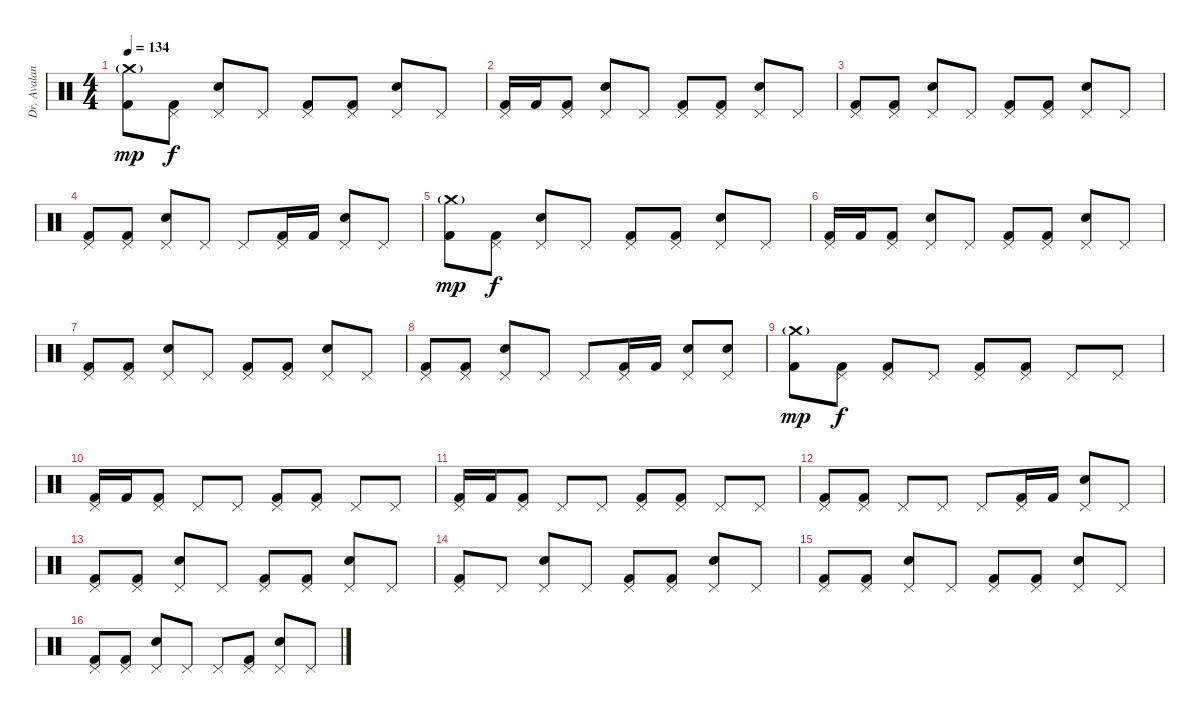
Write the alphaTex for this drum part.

\track ("Dr. Avalanche" "Dr. Avalan") {instrument percussion}
\staff {score}
\articulation defaults
\ts (4 4)
\tempo 134
\clef neutral
\ks c
("Crash medium (hit)"{g} "Kick (hit) 2").8{dy mp} ("Pedal Hi-Hat (hit)" "Kick (hit) 2").8{dy f} ("Pedal Hi-Hat (hit)" "Electric Snare (hit)").8 "Pedal Hi-Hat (hit)".8 ("Pedal Hi-Hat (hit)" "Kick (hit) 2").8 ("Pedal Hi-Hat (hit)" "Kick (hit) 2").8 ("Pedal Hi-Hat (hit)" "Electric Snare (hit)").8 "Pedal Hi-Hat (hit)".8 |
("Pedal Hi-Hat (hit)" "Kick (hit) 2").16 "Kick (hit) 2".16 ("Pedal Hi-Hat (hit)" "Kick (hit) 2").8 ("Pedal Hi-Hat (hit)" "Electric Snare (hit)").8 "Pedal Hi-Hat (hit)".8 ("Pedal Hi-Hat (hit)" "Kick (hit) 2").8 ("Pedal Hi-Hat (hit)" "Kick (hit) 2").8 ("Pedal Hi-Hat (hit)" "Electric Snare (hit)").8 "Pedal Hi-Hat (hit)".8 |
("Pedal Hi-Hat (hit)" "Kick (hit) 2").8 ("Pedal Hi-Hat (hit)" "Kick (hit) 2").8 ("Pedal Hi-Hat (hit)" "Electric Snare (hit)").8 "Pedal Hi-Hat (hit)".8 ("Pedal Hi-Hat (hit)" "Kick (hit) 2").8 ("Pedal Hi-Hat (hit)" "Kick (hit) 2").8 ("Pedal Hi-Hat (hit)" "Electric Snare (hit)").8 "Pedal Hi-Hat (hit)".8 |
("Pedal Hi-Hat (hit)" "Kick (hit) 2").8 ("Pedal Hi-Hat (hit)" "Kick (hit) 2").8 ("Pedal Hi-Hat (hit)" "Electric Snare (hit)").8 "Pedal Hi-Hat (hit)".8 "Pedal Hi-Hat (hit)".8 ("Pedal Hi-Hat (hit)" "Kick (hit) 2").16 "Kick (hit) 2".16 ("Pedal Hi-Hat (hit)" "Electric Snare (hit)").8 "Pedal Hi-Hat (hit)".8 |
("Crash medium (hit)"{g} "Kick (hit) 2").8{dy mp} ("Pedal Hi-Hat (hit)" "Kick (hit) 2").8{dy f} ("Pedal Hi-Hat (hit)" "Electric Snare (hit)").8 "Pedal Hi-Hat (hit)".8 ("Pedal Hi-Hat (hit)" "Kick (hit) 2").8 ("Pedal Hi-Hat (hit)" "Kick (hit) 2").8 ("Pedal Hi-Hat (hit)" "Electric Snare (hit)").8 "Pedal Hi-Hat (hit)".8 |
("Pedal Hi-Hat (hit)" "Kick (hit) 2").16 "Kick (hit) 2".16 ("Pedal Hi-Hat (hit)" "Kick (hit) 2").8 ("Pedal Hi-Hat (hit)" "Electric Snare (hit)").8 "Pedal Hi-Hat (hit)".8 ("Pedal Hi-Hat (hit)" "Kick (hit) 2").8 ("Pedal Hi-Hat (hit)" "Kick (hit) 2").8 ("Pedal Hi-Hat (hit)" "Electric Snare (hit)").8 "Pedal Hi-Hat (hit)".8 |
("Pedal Hi-Hat (hit)" "Kick (hit) 2").8 ("Pedal Hi-Hat (hit)" "Kick (hit) 2").8 ("Pedal Hi-Hat (hit)" "Electric Snare (hit)").8 "Pedal Hi-Hat (hit)".8 ("Pedal Hi-Hat (hit)" "Kick (hit) 2").8 ("Pedal Hi-Hat (hit)" "Kick (hit) 2").8 ("Pedal Hi-Hat (hit)" "Electric Snare (hit)").8 "Pedal Hi-Hat (hit)".8 |
("Pedal Hi-Hat (hit)" "Kick (hit) 2").8 ("Pedal Hi-Hat (hit)" "Kick (hit) 2").8 ("Pedal Hi-Hat (hit)" "Electric Snare (hit)").8 "Pedal Hi-Hat (hit)".8 "Pedal Hi-Hat (hit)".8 ("Pedal Hi-Hat (hit)" "Kick (hit) 2").16 "Kick (hit) 2".16 ("Pedal Hi-Hat (hit)" "Electric Snare (hit)").8 ("Pedal Hi-Hat (hit)" "Electric Snare (hit)").8 |
("Crash medium (hit)"{g} "Kick (hit) 2").8{dy mp} ("Pedal Hi-Hat (hit)" "Kick (hit) 2").8{dy f} ("Pedal Hi-Hat (hit)" "Kick (hit) 2").8 "Pedal Hi-Hat (hit)".8 ("Pedal Hi-Hat (hit)" "Kick (hit) 2").8 ("Pedal Hi-Hat (hit)" "Kick (hit) 2").8 "Pedal Hi-Hat (hit)".8 "Pedal Hi-Hat (hit)".8 |
("Pedal Hi-Hat (hit)" "Kick (hit) 2").16 "Kick (hit) 2".16 ("Pedal Hi-Hat (hit)" "Kick (hit) 2").8 "Pedal Hi-Hat (hit)".8 "Pedal Hi-Hat (hit)".8 ("Pedal Hi-Hat (hit)" "Kick (hit) 2").8 ("Pedal Hi-Hat (hit)" "Kick (hit) 2").8 "Pedal Hi-Hat (hit)".8 "Pedal Hi-Hat (hit)".8 |
("Pedal Hi-Hat (hit)" "Kick (hit) 2").16 "Kick (hit) 2".16 ("Pedal Hi-Hat (hit)" "Kick (hit) 2").8 "Pedal Hi-Hat (hit)".8 "Pedal Hi-Hat (hit)".8 ("Pedal Hi-Hat (hit)" "Kick (hit) 2").8 ("Pedal Hi-Hat (hit)" "Kick (hit) 2").8 "Pedal Hi-Hat (hit)".8 "Pedal Hi-Hat (hit)".8 |
("Pedal Hi-Hat (hit)" "Kick (hit) 2").8 ("Pedal Hi-Hat (hit)" "Kick (hit) 2").8 "Pedal Hi-Hat (hit)".8 "Pedal Hi-Hat (hit)".8 "Pedal Hi-Hat (hit)".8 ("Pedal Hi-Hat (hit)" "Kick (hit) 2").16 "Kick (hit) 2".16 ("Pedal Hi-Hat (hit)" "Electric Snare (hit)").8 "Pedal Hi-Hat (hit)".8 |
("Pedal Hi-Hat (hit)" "Kick (hit) 2").8 ("Pedal Hi-Hat (hit)" "Kick (hit) 2").8 ("Pedal Hi-Hat (hit)" "Electric Snare (hit)").8 "Pedal Hi-Hat (hit)".8 ("Pedal Hi-Hat (hit)" "Kick (hit) 2").8 ("Pedal Hi-Hat (hit)" "Kick (hit) 2").8 ("Pedal Hi-Hat (hit)" "Electric Snare (hit)").8 "Pedal Hi-Hat (hit)".8 |
("Pedal Hi-Hat (hit)" "Kick (hit) 2").8 "Pedal Hi-Hat (hit)".8 ("Pedal Hi-Hat (hit)" "Electric Snare (hit)").8 "Pedal Hi-Hat (hit)".8 ("Pedal Hi-Hat (hit)" "Kick (hit) 2").8 ("Pedal Hi-Hat (hit)" "Kick (hit) 2").8 ("Pedal Hi-Hat (hit)" "Electric Snare (hit)").8 "Pedal Hi-Hat (hit)".8 |
("Pedal Hi-Hat (hit)" "Kick (hit) 2").8 ("Pedal Hi-Hat (hit)" "Kick (hit) 2").8 ("Pedal Hi-Hat (hit)" "Electric Snare (hit)").8 "Pedal Hi-Hat (hit)".8 ("Pedal Hi-Hat (hit)" "Kick (hit) 2").8 ("Pedal Hi-Hat (hit)" "Kick (hit) 2").8 ("Pedal Hi-Hat (hit)" "Electric Snare (hit)").8 "Pedal Hi-Hat (hit)".8 |
("Pedal Hi-Hat (hit)" "Kick (hit) 2").8 ("Pedal Hi-Hat (hit)" "Kick (hit) 2").8 ("Pedal Hi-Hat (hit)" "Electric Snare (hit)").8 "Pedal Hi-Hat (hit)".8 "Pedal Hi-Hat (hit)".8 ("Pedal Hi-Hat (hit)" "Kick (hit) 2").8 ("Pedal Hi-Hat (hit)" "Electric Snare (hit)").8 "Pedal Hi-Hat (hit)".8
